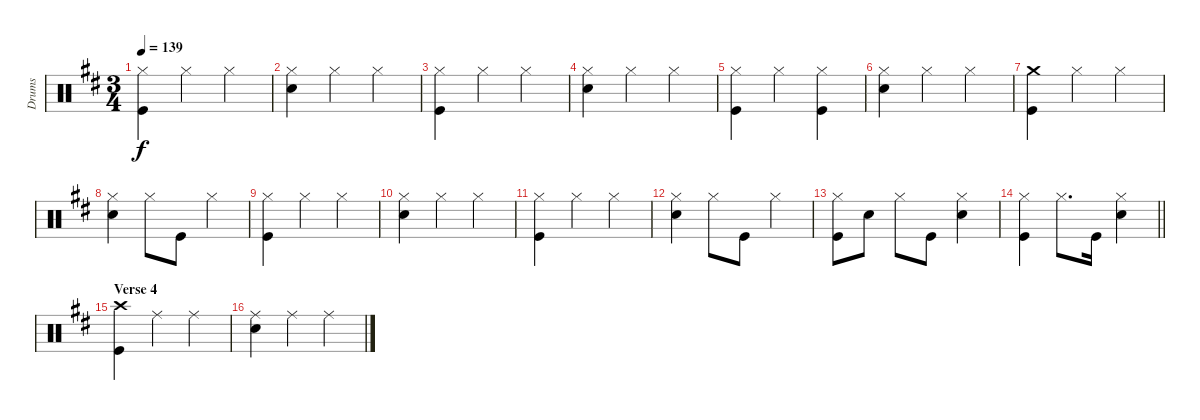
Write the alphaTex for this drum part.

\track ("Drums" "Drums") {instrument percussion}
\staff {score}
\articulation defaults
\ts (3 4)
\tempo 139
\clef neutral
\ks d
("Hi-Hat (closed)" "Kick (hit)").4{dy f} "Hi-Hat (closed)".4 "Hi-Hat (closed)".4 |
("Hi-Hat (closed)" "Snare (hit) 2").4 "Hi-Hat (closed)".4 "Hi-Hat (closed)".4 |
("Hi-Hat (closed)" "Kick (hit)").4 "Hi-Hat (closed)".4 "Hi-Hat (closed)".4 |
("Hi-Hat (closed)" "Snare (hit) 2").4 "Hi-Hat (closed)".4 "Hi-Hat (closed)".4 |
("Hi-Hat (closed)" "Kick (hit)").4 "Hi-Hat (closed)".4 ("Hi-Hat (closed)" "Kick (hit)").4 |
("Hi-Hat (closed)" "Snare (hit) 2").4 "Hi-Hat (closed)".4 "Hi-Hat (closed)".4 |
("Crash medium (hit)" "Kick (hit)").4 "Hi-Hat (closed)".4 "Hi-Hat (closed)".4 |
("Hi-Hat (closed)" "Snare (hit) 2").4 "Hi-Hat (closed)".8 "Kick (hit)".8 "Hi-Hat (closed)".4 |
("Hi-Hat (closed)" "Kick (hit)").4 "Hi-Hat (closed)".4 "Hi-Hat (closed)".4 |
("Hi-Hat (closed)" "Snare (hit) 2").4 "Hi-Hat (closed)".4 "Hi-Hat (closed)".4 |
("Hi-Hat (closed)" "Kick (hit)").4 "Hi-Hat (closed)".4 "Hi-Hat (closed)".4 |
("Hi-Hat (closed)" "Snare (hit) 2").4 "Hi-Hat (closed)".8 "Kick (hit)".8 "Hi-Hat (closed)".4 |
("Hi-Hat (closed)" "Kick (hit)").8 "Snare (hit) 2".8 "Hi-Hat (closed)".8 "Kick (hit)".8 ("Hi-Hat (closed)" "Snare (hit) 2").4 |
\barLineRight lightlight
("Hi-Hat (closed)" "Kick (hit)").4 "Hi-Hat (closed)".8{d} "Kick (hit)".16 ("Hi-Hat (closed)" "Snare (hit) 2").4 |
\section ("" "Verse 4")
("Crash high (hit)" "Kick (hit)").4 "Ride (middle)".4 "Ride (middle)".4 |
("Ride (middle)" "Snare (hit) 2").4 "Ride (middle)".4 "Ride (middle)".4
